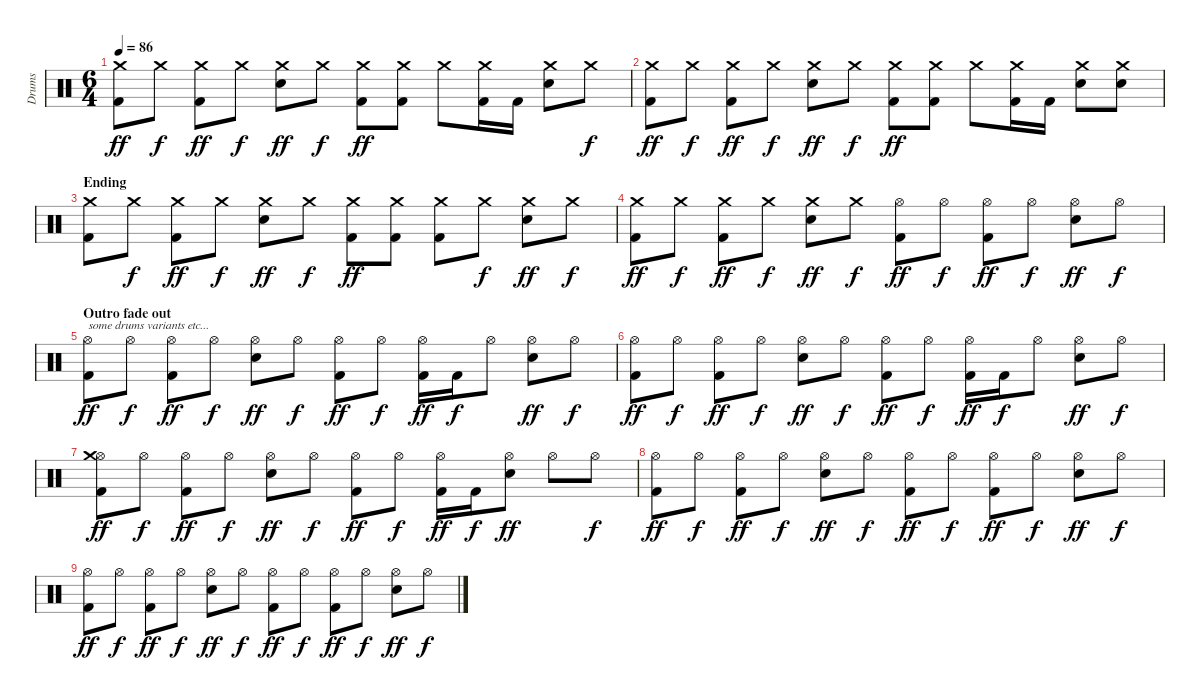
\track ("Drums" "Drums") {instrument percussion}
\staff {score}
\articulation defaults
\ts (6 4)
\tempo 86
\clef neutral
\ks c
("Crash medium (hit)" "Kick (hit) 2").8{dy ff} "Crash medium (hit)".8{dy f} ("Crash medium (hit)" "Kick (hit) 2").8{dy ff} "Crash medium (hit)".8{dy f} ("Crash medium (hit)" "Electric Snare (hit)").8{dy ff} "Crash medium (hit)".8{dy f} ("Crash medium (hit)" "Kick (hit) 2").8{dy ff} ("Crash medium (hit)" "Kick (hit) 2").8 "Crash medium (hit)".8 ("Crash medium (hit)" "Kick (hit) 2").16 "Kick (hit) 2".16 ("Crash medium (hit)" "Electric Snare (hit)").8 "Crash medium (hit)".8{dy f} |
("Crash medium (hit)" "Kick (hit) 2").8{dy ff} "Crash medium (hit)".8{dy f} ("Crash medium (hit)" "Kick (hit) 2").8{dy ff} "Crash medium (hit)".8{dy f} ("Crash medium (hit)" "Electric Snare (hit)").8{dy ff} "Crash medium (hit)".8{dy f} ("Crash medium (hit)" "Kick (hit) 2").8{dy ff} ("Crash medium (hit)" "Kick (hit) 2").8 "Crash medium (hit)".8 ("Crash medium (hit)" "Kick (hit) 2").16 "Kick (hit) 2".16 ("Crash medium (hit)" "Electric Snare (hit)").8 ("Crash medium (hit)" "Electric Snare (hit)").8 |
\section ("" "Ending")
("Crash medium (hit)" "Kick (hit) 2").8 "Crash medium (hit)".8{dy f} ("Crash medium (hit)" "Kick (hit) 2").8{dy ff} "Crash medium (hit)".8{dy f} ("Crash medium (hit)" "Electric Snare (hit)").8{dy ff} "Crash medium (hit)".8{dy f} ("Crash medium (hit)" "Kick (hit) 2").8{dy ff} ("Crash medium (hit)" "Kick (hit) 2").8 ("Crash medium (hit)" "Kick (hit) 2").8 "Crash medium (hit)".8{dy f} ("Crash medium (hit)" "Electric Snare (hit)").8{dy ff} "Crash medium (hit)".8{dy f} |
("Crash medium (hit)" "Kick (hit) 2").8{dy ff} "Crash medium (hit)".8{dy f} ("Crash medium (hit)" "Kick (hit) 2").8{dy ff} "Crash medium (hit)".8{dy f} ("Crash medium (hit)" "Electric Snare (hit)").8{dy ff} "Crash medium (hit)".8{dy f} ("Hi-Hat (open)" "Kick (hit) 2").8{dy ff} "Hi-Hat (open)".8{dy f} ("Hi-Hat (open)" "Kick (hit) 2").8{dy ff} "Hi-Hat (open)".8{dy f} ("Hi-Hat (open)" "Electric Snare (hit)").8{dy ff} "Hi-Hat (open)".8{dy f} |
\section ("" "Outro fade out")
("Hi-Hat (open)" "Kick (hit) 2").8{txt "some drums variants etc..." dy ff} "Hi-Hat (open)".8{dy f} ("Hi-Hat (open)" "Kick (hit) 2").8{dy ff} "Hi-Hat (open)".8{dy f} ("Hi-Hat (open)" "Electric Snare (hit)").8{dy ff} "Hi-Hat (open)".8{dy f} ("Hi-Hat (open)" "Kick (hit) 2").8{dy ff} "Hi-Hat (open)".8{dy f} ("Hi-Hat (open)" "Kick (hit) 2").16{dy ff} "Kick (hit) 2".16{dy f} "Hi-Hat (open)".8 ("Hi-Hat (open)" "Electric Snare (hit)").8{dy ff} "Hi-Hat (open)".8{dy f} |
("Hi-Hat (open)" "Kick (hit) 2").8{dy ff} "Hi-Hat (open)".8{dy f} ("Hi-Hat (open)" "Kick (hit) 2").8{dy ff} "Hi-Hat (open)".8{dy f} ("Hi-Hat (open)" "Electric Snare (hit)").8{dy ff} "Hi-Hat (open)".8{dy f} ("Hi-Hat (open)" "Kick (hit) 2").8{dy ff} "Hi-Hat (open)".8{dy f} ("Hi-Hat (open)" "Kick (hit) 2").16{dy ff} "Kick (hit) 2".16{dy f} "Hi-Hat (open)".8 ("Hi-Hat (open)" "Electric Snare (hit)").8{dy ff} "Hi-Hat (open)".8{dy f} |
("Hi-Hat (open)" "Crash medium (hit)" "Kick (hit) 2").8{dy ff volume 0} "Hi-Hat (open)".8{dy f} ("Hi-Hat (open)" "Kick (hit) 2").8{dy ff} "Hi-Hat (open)".8{dy f} ("Hi-Hat (open)" "Electric Snare (hit)").8{dy ff} "Hi-Hat (open)".8{dy f} ("Hi-Hat (open)" "Kick (hit) 2").8{dy ff} "Hi-Hat (open)".8{dy f} ("Hi-Hat (open)" "Kick (hit) 2").16{dy ff} "Kick (hit) 2".16{dy f} ("Hi-Hat (open)" "Electric Snare (hit)").8{dy ff} "Hi-Hat (open)".8 "Hi-Hat (open)".8{dy f} |
("Hi-Hat (open)" "Kick (hit) 2").8{dy ff} "Hi-Hat (open)".8{dy f} ("Hi-Hat (open)" "Kick (hit) 2").8{dy ff} "Hi-Hat (open)".8{dy f} ("Hi-Hat (open)" "Electric Snare (hit)").8{dy ff} "Hi-Hat (open)".8{dy f} ("Hi-Hat (open)" "Kick (hit) 2").8{dy ff} "Hi-Hat (open)".8{dy f} ("Hi-Hat (open)" "Kick (hit) 2").8{dy ff} "Hi-Hat (open)".8{dy f} ("Hi-Hat (open)" "Electric Snare (hit)").8{dy ff} "Hi-Hat (open)".8{dy f} |
("Hi-Hat (open)" "Kick (hit) 2").8{dy ff} "Hi-Hat (open)".8{dy f} ("Hi-Hat (open)" "Kick (hit) 2").8{dy ff} "Hi-Hat (open)".8{dy f} ("Hi-Hat (open)" "Electric Snare (hit)").8{dy ff} "Hi-Hat (open)".8{dy f} ("Hi-Hat (open)" "Kick (hit) 2").8{dy ff} "Hi-Hat (open)".8{dy f} ("Hi-Hat (open)" "Kick (hit) 2").8{dy ff} "Hi-Hat (open)".8{dy f} ("Hi-Hat (open)" "Electric Snare (hit)").8{dy ff} "Hi-Hat (open)".8{dy f}
